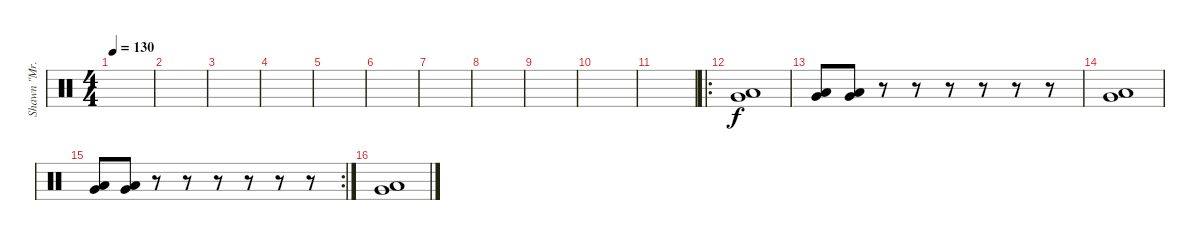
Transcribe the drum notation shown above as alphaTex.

\track ("Shawn \"Mr.Clown\" Crahan" "Shawn \"Mr.") {instrument percussion}
\staff {score}
\articulation defaults
\ts (4 4)
\tempo 130
\clef neutral
\ks c
|
|
|
|
|
|
|
|
|
|
|
\ro
("Very Low Tom (hit)" "Low Floor Tom (hit)").1 |
("Very Low Tom (hit)" "Low Floor Tom (hit)").8 ("Very Low Tom (hit)" "Low Floor Tom (hit)").8 r.8 r.8 r.8 r.8 r.8 r.8 |
("Very Low Tom (hit)" "Low Floor Tom (hit)").1 |
\rc 2
("Very Low Tom (hit)" "Low Floor Tom (hit)").8 ("Very Low Tom (hit)" "Low Floor Tom (hit)").8 r.8 r.8 r.8 r.8 r.8 r.8 |
("Very Low Tom (hit)" "Low Floor Tom (hit)").1
